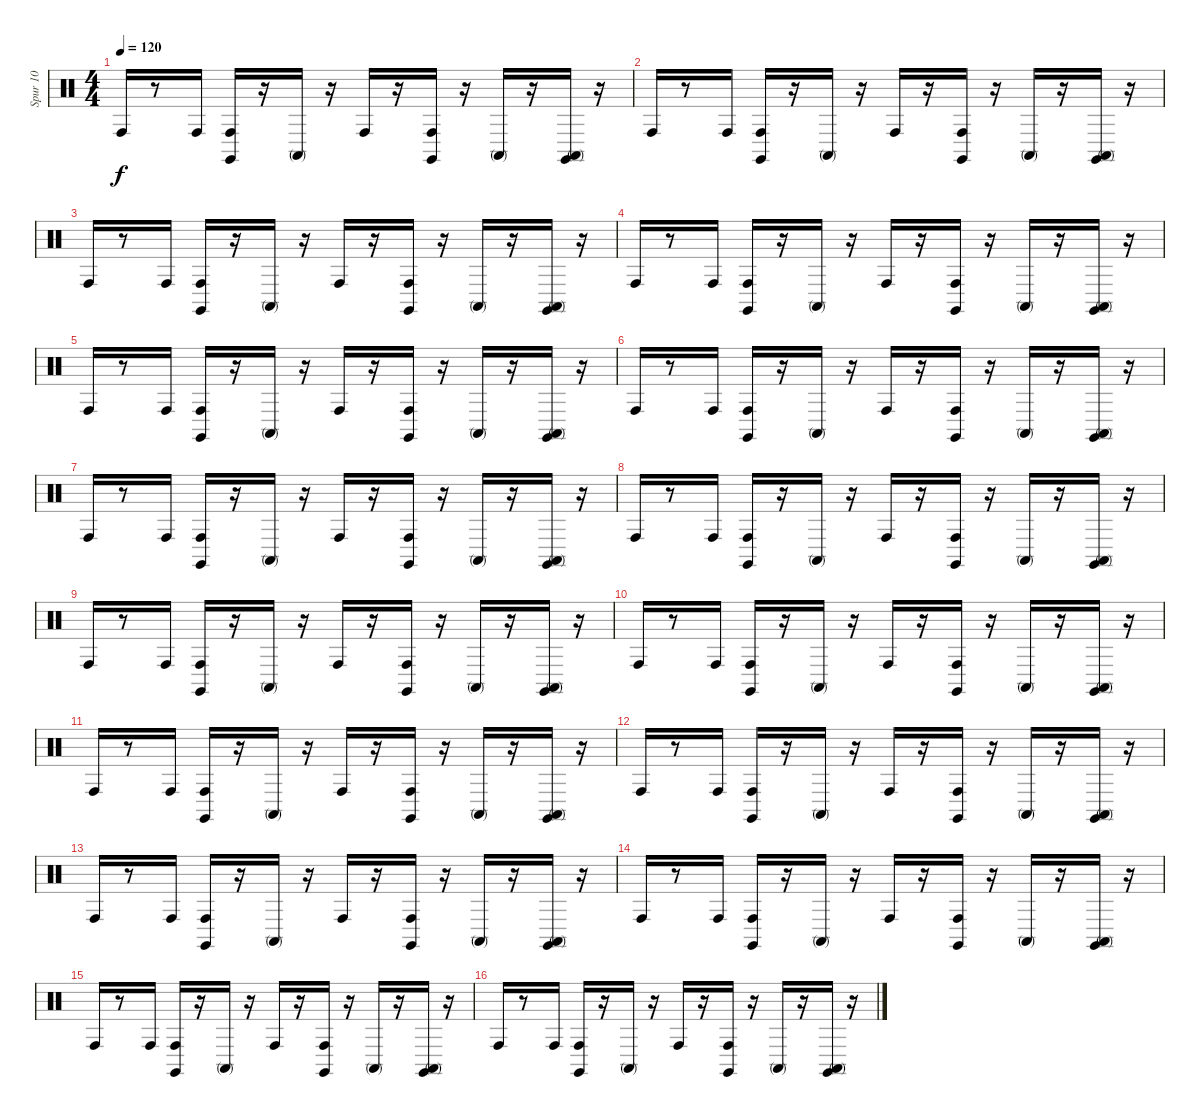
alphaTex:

\track ("Spur 10" "Spur 10") {instrument percussion}
\staff {score}
\articulation defaults
\ts (4 4)
\tempo 120
\clef neutral
\ks c "Conga high (hit)".16{dy f}
r.8 "Conga high (hit)".16 ("Conga high (hit)" "Claves (hit)").16 r.16 "Conga high (mute)".16 r.16 "Conga high (hit)".16 r.16 ("Conga high (hit)" "Claves (hit)").16 r.16 "Conga high (mute)".16 r.16 ("Conga high (mute)" "Claves (hit)").16 r.16 |
"Conga high (hit)".16 r.8 "Conga high (hit)".16 ("Conga high (hit)" "Claves (hit)").16 r.16 "Conga high (mute)".16 r.16 "Conga high (hit)".16 r.16 ("Conga high (hit)" "Claves (hit)").16 r.16 "Conga high (mute)".16 r.16 ("Conga high (mute)" "Claves (hit)").16 r.16 |
"Conga high (hit)".16 r.8 "Conga high (hit)".16 ("Conga high (hit)" "Claves (hit)").16 r.16 "Conga high (mute)".16 r.16 "Conga high (hit)".16 r.16 ("Conga high (hit)" "Claves (hit)").16 r.16 "Conga high (mute)".16 r.16 ("Conga high (mute)" "Claves (hit)").16 r.16 |
"Conga high (hit)".16 r.8 "Conga high (hit)".16 ("Claves (hit)" "Conga high (hit)").16 r.16 "Conga high (mute)".16 r.16 "Conga high (hit)".16 r.16 ("Claves (hit)" "Conga high (hit)").16 r.16 "Conga high (mute)".16 r.16 ("Conga high (mute)" "Claves (hit)").16 r.16 |
"Conga high (hit)".16 r.8 "Conga high (hit)".16 ("Conga high (hit)" "Claves (hit)").16 r.16 "Conga high (mute)".16 r.16 "Conga high (hit)".16 r.16 ("Conga high (hit)" "Claves (hit)").16 r.16 "Conga high (mute)".16 r.16 ("Conga high (mute)" "Claves (hit)").16 r.16 |
"Conga high (hit)".16 r.8 "Conga high (hit)".16 ("Conga high (hit)" "Claves (hit)").16 r.16 "Conga high (mute)".16 r.16 "Conga high (hit)".16 r.16 ("Conga high (hit)" "Claves (hit)").16 r.16 "Conga high (mute)".16 r.16 ("Conga high (mute)" "Claves (hit)").16 r.16 |
"Conga high (hit)".16 r.8 "Conga high (hit)".16 ("Conga high (hit)" "Claves (hit)").16 r.16 "Conga high (mute)".16 r.16 "Conga high (hit)".16 r.16 ("Conga high (hit)" "Claves (hit)").16 r.16 "Conga high (mute)".16 r.16 ("Conga high (mute)" "Claves (hit)").16 r.16 |
"Conga high (hit)".16 r.8 "Conga high (hit)".16 ("Claves (hit)" "Conga high (hit)").16 r.16 "Conga high (mute)".16 r.16 "Conga high (hit)".16 r.16 ("Claves (hit)" "Conga high (hit)").16 r.16 "Conga high (mute)".16 r.16 ("Conga high (mute)" "Claves (hit)").16 r.16 |
"Conga high (hit)".16 r.8 "Conga high (hit)".16 ("Conga high (hit)" "Claves (hit)").16 r.16 "Conga high (mute)".16 r.16 "Conga high (hit)".16 r.16 ("Conga high (hit)" "Claves (hit)").16 r.16 "Conga high (mute)".16 r.16 ("Conga high (mute)" "Claves (hit)").16 r.16 |
"Conga high (hit)".16 r.8 "Conga high (hit)".16 ("Conga high (hit)" "Claves (hit)").16 r.16 "Conga high (mute)".16 r.16 "Conga high (hit)".16 r.16 ("Conga high (hit)" "Claves (hit)").16 r.16 "Conga high (mute)".16 r.16 ("Conga high (mute)" "Claves (hit)").16 r.16 |
"Conga high (hit)".16 r.8 "Conga high (hit)".16 ("Conga high (hit)" "Claves (hit)").16 r.16 "Conga high (mute)".16 r.16 "Conga high (hit)".16 r.16 ("Conga high (hit)" "Claves (hit)").16 r.16 "Conga high (mute)".16 r.16 ("Conga high (mute)" "Claves (hit)").16 r.16 |
"Conga high (hit)".16 r.8 "Conga high (hit)".16 ("Claves (hit)" "Conga high (hit)").16 r.16 "Conga high (mute)".16 r.16 "Conga high (hit)".16 r.16 ("Claves (hit)" "Conga high (hit)").16 r.16 "Conga high (mute)".16 r.16 ("Conga high (mute)" "Claves (hit)").16 r.16 |
"Conga high (hit)".16 r.8 "Conga high (hit)".16 ("Conga high (hit)" "Claves (hit)").16 r.16 "Conga high (mute)".16 r.16 "Conga high (hit)".16 r.16 ("Conga high (hit)" "Claves (hit)").16 r.16 "Conga high (mute)".16 r.16 ("Conga high (mute)" "Claves (hit)").16 r.16 |
"Conga high (hit)".16 r.8 "Conga high (hit)".16 ("Conga high (hit)" "Claves (hit)").16 r.16 "Conga high (mute)".16 r.16 "Conga high (hit)".16 r.16 ("Conga high (hit)" "Claves (hit)").16 r.16 "Conga high (mute)".16 r.16 ("Conga high (mute)" "Claves (hit)").16 r.16 |
"Conga high (hit)".16 r.8 "Conga high (hit)".16 ("Conga high (hit)" "Claves (hit)").16 r.16 "Conga high (mute)".16 r.16 "Conga high (hit)".16 r.16 ("Conga high (hit)" "Claves (hit)").16 r.16 "Conga high (mute)".16 r.16 ("Conga high (mute)" "Claves (hit)").16 r.16 |
"Conga high (hit)".16 r.8 "Conga high (hit)".16 ("Claves (hit)" "Conga high (hit)").16 r.16 "Conga high (mute)".16 r.16 "Conga high (hit)".16 r.16 ("Claves (hit)" "Conga high (hit)").16 r.16 "Conga high (mute)".16 r.16 ("Conga high (mute)" "Claves (hit)").16 r.16
